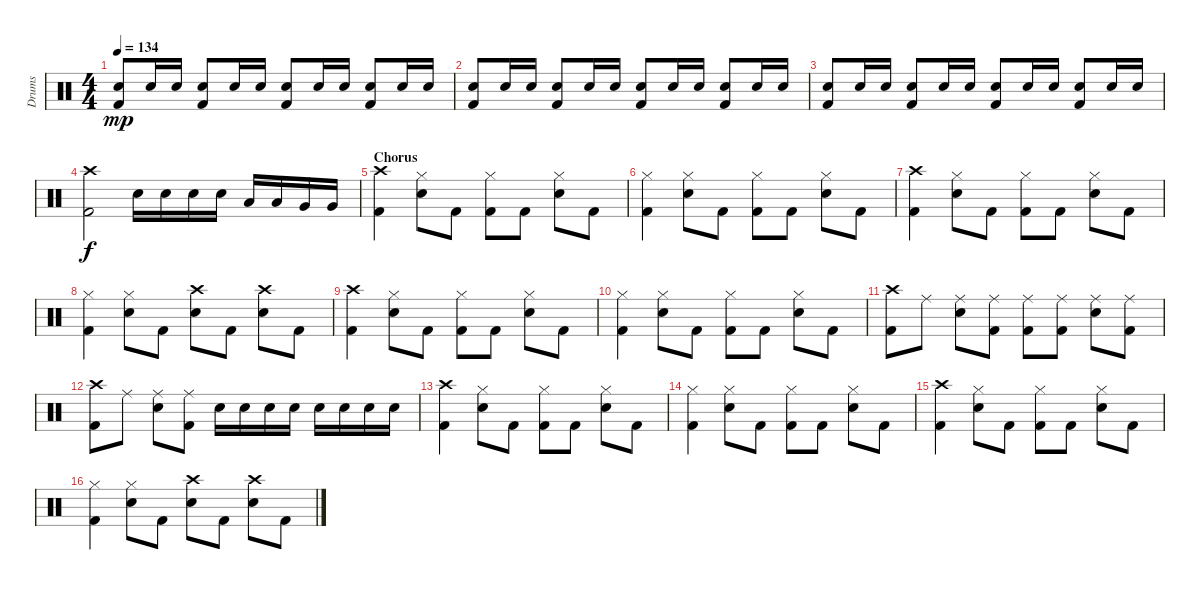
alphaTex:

\track ("Drums" "Drums") {instrument percussion}
\staff {score}
\articulation defaults
\ts (4 4)
\tempo 134
\clef neutral
\ks c
("Electric Snare (hit)" "Kick (hit) 2").8{dy mp} "Electric Snare (hit)".16 "Electric Snare (hit)".16 ("Electric Snare (hit)" "Kick (hit) 2").8 "Electric Snare (hit)".16 "Electric Snare (hit)".16 ("Electric Snare (hit)" "Kick (hit) 2").8 "Electric Snare (hit)".16 "Electric Snare (hit)".16 ("Electric Snare (hit)" "Kick (hit) 2").8 "Electric Snare (hit)".16 "Electric Snare (hit)".16 |
("Electric Snare (hit)" "Kick (hit) 2").8 "Electric Snare (hit)".16 "Electric Snare (hit)".16 ("Electric Snare (hit)" "Kick (hit) 2").8 "Electric Snare (hit)".16 "Electric Snare (hit)".16 ("Electric Snare (hit)" "Kick (hit) 2").8 "Electric Snare (hit)".16 "Electric Snare (hit)".16 ("Electric Snare (hit)" "Kick (hit) 2").8 "Electric Snare (hit)".16 "Electric Snare (hit)".16 |
("Electric Snare (hit)" "Kick (hit) 2").8 "Electric Snare (hit)".16 "Electric Snare (hit)".16 ("Electric Snare (hit)" "Kick (hit) 2").8 "Electric Snare (hit)".16 "Electric Snare (hit)".16 ("Electric Snare (hit)" "Kick (hit) 2").8 "Electric Snare (hit)".16 "Electric Snare (hit)".16 ("Electric Snare (hit)" "Kick (hit) 2").8 "Electric Snare (hit)".16 "Electric Snare (hit)".16 |
("Crash high (hit)" "Kick (hit) 2").2{dy f} "Electric Snare (hit)".16 "Electric Snare (hit)".16 "Electric Snare (hit)".16 "Electric Snare (hit)".16 "Low Tom (hit)".16 "Low Tom (hit)".16 "Very Low Tom (hit)".16 "Very Low Tom (hit)".16 |
\section ("" "Chorus")
("Crash high (hit)" "Kick (hit) 2").4 ("Hi-Hat (closed)" "Electric Snare (hit)").8 "Kick (hit) 2".8 ("Hi-Hat (closed)" "Kick (hit) 2").8 "Kick (hit) 2".8 ("Hi-Hat (closed)" "Electric Snare (hit)").8 "Kick (hit) 2".8 |
("Hi-Hat (closed)" "Kick (hit) 2").4 ("Hi-Hat (closed)" "Electric Snare (hit)").8 "Kick (hit) 2".8 ("Hi-Hat (closed)" "Kick (hit) 2").8 "Kick (hit) 2".8 ("Hi-Hat (closed)" "Electric Snare (hit)").8 "Kick (hit) 2".8 |
("Crash high (hit)" "Kick (hit) 2").4 ("Hi-Hat (closed)" "Electric Snare (hit)").8 "Kick (hit) 2".8 ("Hi-Hat (closed)" "Kick (hit) 2").8 "Kick (hit) 2".8 ("Hi-Hat (closed)" "Electric Snare (hit)").8 "Kick (hit) 2".8 |
("Hi-Hat (closed)" "Kick (hit) 2").4 ("Hi-Hat (closed)" "Electric Snare (hit)").8 "Kick (hit) 2".8 ("Crash high (hit)" "Electric Snare (hit)").8 "Kick (hit) 2".8 ("Crash high (hit)" "Electric Snare (hit)").8 "Kick (hit) 2".8 |
("Crash high (hit)" "Kick (hit) 2").4 ("Hi-Hat (closed)" "Electric Snare (hit)").8 "Kick (hit) 2".8 ("Hi-Hat (closed)" "Kick (hit) 2").8 "Kick (hit) 2".8 ("Hi-Hat (closed)" "Electric Snare (hit)").8 "Kick (hit) 2".8 |
("Hi-Hat (closed)" "Kick (hit) 2").4 ("Hi-Hat (closed)" "Electric Snare (hit)").8 "Kick (hit) 2".8 ("Hi-Hat (closed)" "Kick (hit) 2").8 "Kick (hit) 2".8 ("Hi-Hat (closed)" "Electric Snare (hit)").8 "Kick (hit) 2".8 |
("Crash high (hit)" "Kick (hit) 2").8 "Ride (middle)".8 ("Ride (middle)" "Electric Snare (hit)").8 ("Ride (middle)" "Kick (hit) 2").8 ("Ride (middle)" "Kick (hit) 2").8 ("Ride (middle)" "Kick (hit) 2").8 ("Ride (middle)" "Electric Snare (hit)").8 ("Ride (middle)" "Kick (hit) 2").8 |
("Crash high (hit)" "Kick (hit) 2").8 "Ride (middle)".8 ("Ride (middle)" "Electric Snare (hit)").8 ("Ride (middle)" "Kick (hit) 2").8 "Electric Snare (hit)".16 "Electric Snare (hit)".16 "Electric Snare (hit)".16 "Electric Snare (hit)".16 "Electric Snare (hit)".16 "Electric Snare (hit)".16 "Electric Snare (hit)".16 "Electric Snare (hit)".16 |
("Crash high (hit)" "Kick (hit) 2").4 ("Hi-Hat (closed)" "Electric Snare (hit)").8 "Kick (hit) 2".8 ("Hi-Hat (closed)" "Kick (hit) 2").8 "Kick (hit) 2".8 ("Hi-Hat (closed)" "Electric Snare (hit)").8 "Kick (hit) 2".8 |
("Hi-Hat (closed)" "Kick (hit) 2").4 ("Hi-Hat (closed)" "Electric Snare (hit)").8 "Kick (hit) 2".8 ("Hi-Hat (closed)" "Kick (hit) 2").8 "Kick (hit) 2".8 ("Hi-Hat (closed)" "Electric Snare (hit)").8 "Kick (hit) 2".8 |
("Crash high (hit)" "Kick (hit) 2").4 ("Hi-Hat (closed)" "Electric Snare (hit)").8 "Kick (hit) 2".8 ("Hi-Hat (closed)" "Kick (hit) 2").8 "Kick (hit) 2".8 ("Hi-Hat (closed)" "Electric Snare (hit)").8 "Kick (hit) 2".8 |
("Hi-Hat (closed)" "Kick (hit) 2").4 ("Hi-Hat (closed)" "Electric Snare (hit)").8 "Kick (hit) 2".8 ("Crash high (hit)" "Electric Snare (hit)").8 "Kick (hit) 2".8 ("Crash high (hit)" "Electric Snare (hit)").8 "Kick (hit) 2".8
